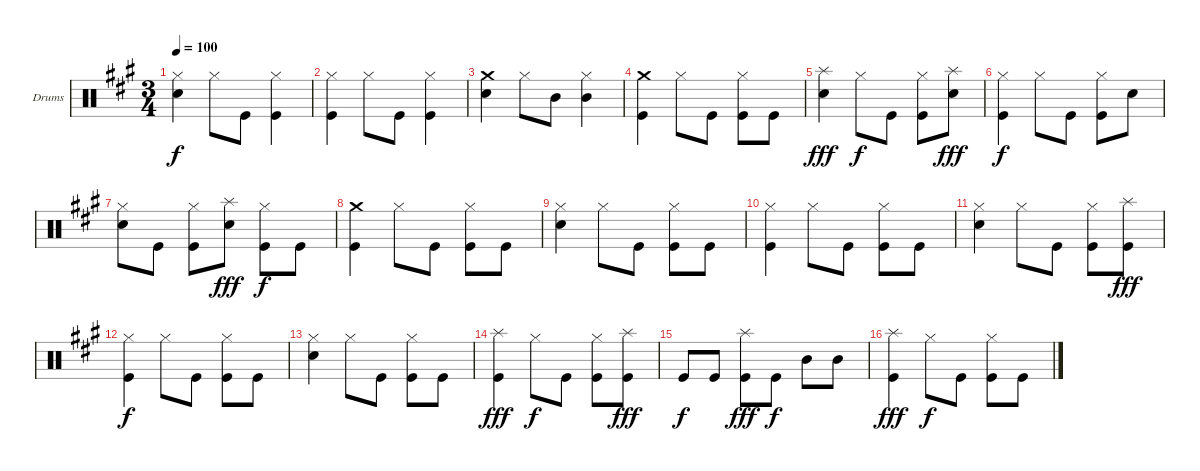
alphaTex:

\bracketExtendMode groupsimilarinstruments
\firstSystemTrackNameOrientation horizontal
\otherSystemsTrackNameOrientation horizontal
\track ("Drumkit" "Drums") {instrument percussion}
\staff {score}
\articulation defaults
\ts (3 4)
\tempo 100
\clef neutral
\scale
1.05801
\ks a
("Hi-Hat (closed)" "Snare (hit) 2").4{dy f} "Hi-Hat (closed)".8 "Kick (hit)".8 ("Hi-Hat (closed)" "Kick (hit)").4 |
\scale
0.941992 ("Hi-Hat (closed)" "Kick (hit)").4 "Hi-Hat (closed)".8 "Kick (hit)".8 ("Hi-Hat (closed)" "Kick (hit)").4 |
\scale
1.05801 ("Crash medium (hit)" "Snare (hit) 2").4 "Hi-Hat (closed)".8 "Mid Tom (hit)".8 ("Hi-Hat (closed)" "Mid Tom (hit)").4 |
\scale
0.941992 ("Crash medium (hit)" "Kick (hit)").4 "Hi-Hat (closed)".8 "Kick (hit)".8 ("Hi-Hat (closed)" "Kick (hit)").8 "Kick (hit)".8 |
\scale
1.05801 ("Splash (hit)" "Snare (hit) 2").4{dy fff} "Hi-Hat (closed)".8{dy f} "Kick (hit)".8 ("Hi-Hat (closed)" "Kick (hit)").8 ("Splash (hit)" "Snare (hit) 2").8{dy fff} |
\scale
0.941992 ("Hi-Hat (closed)" "Kick (hit)").4{dy f} "Hi-Hat (closed)".8 "Kick (hit)".8 ("Hi-Hat (closed)" "Kick (hit)").8 "Snare (hit) 2".8 |
\scale
1.05801 ("Hi-Hat (closed)" "Snare (hit) 2").8 "Kick (hit)".8 ("Hi-Hat (closed)" "Kick (hit)").8 ("Splash (hit)" "Snare (hit) 2").8{dy fff} ("Hi-Hat (closed)" "Kick (hit)").8{dy f} "Kick (hit)".8 |
\scale
0.941992 ("Crash medium (hit)" "Kick (hit)").4 "Hi-Hat (closed)".8 "Kick (hit)".8 ("Hi-Hat (closed)" "Kick (hit)").8 "Kick (hit)".8 |
\scale
1.05801 ("Hi-Hat (closed)" "Snare (hit) 2").4 "Hi-Hat (closed)".8 "Kick (hit)".8 ("Hi-Hat (closed)" "Kick (hit)").8 "Kick (hit)".8 |
\scale
0.941992 ("Hi-Hat (closed)" "Kick (hit)").4 "Hi-Hat (closed)".8 "Kick (hit)".8 ("Hi-Hat (closed)" "Kick (hit)").8 "Kick (hit)".8 |
\scale
1.05801 ("Hi-Hat (closed)" "Snare (hit) 2").4 "Hi-Hat (closed)".8 "Kick (hit)".8 ("Hi-Hat (closed)" "Kick (hit)").8 ("Splash (hit)" "Kick (hit)").8{dy fff} |
\scale
0.941992 ("Hi-Hat (closed)" "Kick (hit)").4{dy f} "Hi-Hat (closed)".8 "Kick (hit)".8 ("Hi-Hat (closed)" "Kick (hit)").8 "Kick (hit)".8 |
\scale
1.05801 ("Hi-Hat (closed)" "Snare (hit) 2").4 "Hi-Hat (closed)".8 "Kick (hit)".8 ("Hi-Hat (closed)" "Kick (hit)").8 "Kick (hit)".8 |
\scale
0.941992 ("Splash (hit)" "Kick (hit)").4{dy fff} "Hi-Hat (closed)".8{dy f} "Kick (hit)".8 ("Hi-Hat (closed)" "Kick (hit)").8 ("Splash (hit)" "Kick (hit)").8{dy fff} |
\scale
1.05801 "Kick (hit)".8{dy f} "Kick (hit)".8 ("Splash (hit)" "Kick (hit)").8{dy fff} "Kick (hit)".8{dy f} "Mid Tom (hit)".8 "Mid Tom (hit)".8 |
\scale
0.941992 ("Splash (hit)" "Kick (hit)").4{dy fff} "Hi-Hat (closed)".8{dy f} "Kick (hit)".8 ("Hi-Hat (closed)" "Kick (hit)").8 "Kick (hit)".8
